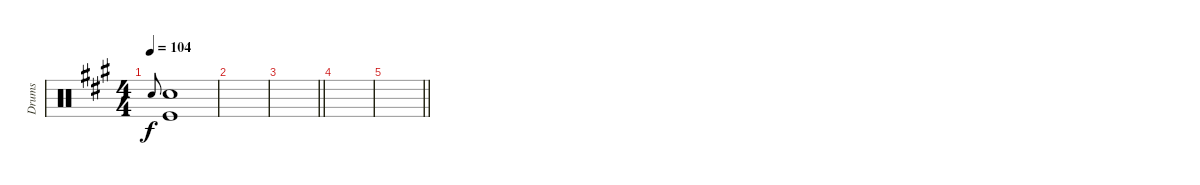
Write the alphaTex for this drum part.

\track ("Drums" "Drums") {instrument percussion}
\staff {score}
\articulation defaults
\ts (4 4)
\tempo 104
\clef neutral
\ks a "Electric Snare (hit)".8{gr onbeat dy f}
("Electric Snare (hit)" "Kick (hit)").1 |
|
\barLineRight lightlight
|
|
\barLineRight lightlight
